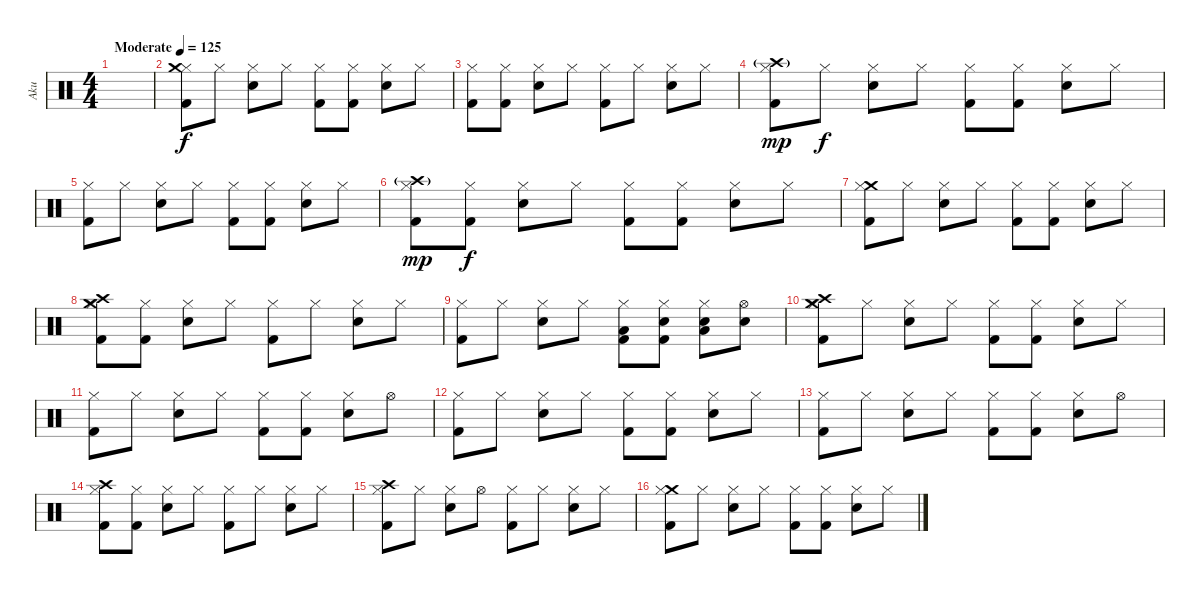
\track ("Aku" "Aku") {instrument percussion}
\staff {score}
\articulation defaults
\ts (4 4)
\tempo (125 "Moderate")
\clef neutral
\ks c
|
("Hi-Hat (closed)" "Kick (hit) 2" "Crash medium (hit)").8 "Hi-Hat (closed)".8 ("Hi-Hat (closed)" "Snare (hit) 2").8 "Hi-Hat (closed)".8 ("Hi-Hat (closed)" "Kick (hit) 2").8 ("Hi-Hat (closed)" "Kick (hit) 2").8 ("Hi-Hat (closed)" "Snare (hit) 2").8 "Hi-Hat (closed)".8 |
("Hi-Hat (closed)" "Kick (hit) 2").8 ("Hi-Hat (closed)" "Kick (hit) 2").8 ("Hi-Hat (closed)" "Snare (hit) 2").8 "Hi-Hat (closed)".8 ("Hi-Hat (closed)" "Kick (hit) 2").8 "Hi-Hat (closed)".8 ("Hi-Hat (closed)" "Snare (hit) 2").8 "Hi-Hat (closed)".8 |
("Crash high (hit)"{g} "Hi-Hat (closed)" "Kick (hit) 2").8{dy mp} "Hi-Hat (closed)".8{dy f} ("Hi-Hat (closed)" "Snare (hit) 2").8 "Hi-Hat (closed)".8 ("Hi-Hat (closed)" "Kick (hit) 2").8 ("Hi-Hat (closed)" "Kick (hit) 2").8 ("Hi-Hat (closed)" "Snare (hit) 2").8 "Hi-Hat (closed)".8 |
("Hi-Hat (closed)" "Kick (hit) 2").8 "Hi-Hat (closed)".8 ("Hi-Hat (closed)" "Snare (hit) 2").8 "Hi-Hat (closed)".8 ("Hi-Hat (closed)" "Kick (hit) 2").8 ("Hi-Hat (closed)" "Kick (hit) 2").8 ("Hi-Hat (closed)" "Snare (hit) 2").8 "Hi-Hat (closed)".8 |
("Crash high (hit)"{g} "Hi-Hat (closed)" "Kick (hit) 2").8{dy mp} ("Hi-Hat (closed)" "Kick (hit) 2").8{dy f} ("Hi-Hat (closed)" "Snare (hit) 2").8 "Hi-Hat (closed)".8 ("Hi-Hat (closed)" "Kick (hit) 2").8 ("Hi-Hat (closed)" "Kick (hit) 2").8 ("Hi-Hat (closed)" "Snare (hit) 2").8 "Hi-Hat (closed)".8 |
("Crash medium (hit)" "Hi-Hat (closed)" "Kick (hit) 2").8 "Hi-Hat (closed)".8 ("Hi-Hat (closed)" "Snare (hit) 2").8 "Hi-Hat (closed)".8 ("Hi-Hat (closed)" "Kick (hit) 2").8 ("Hi-Hat (closed)" "Kick (hit) 2").8 ("Hi-Hat (closed)" "Snare (hit) 2").8 "Hi-Hat (closed)".8 |
("Crash high (hit)" "Hi-Hat (closed)" "Kick (hit) 2" "Crash medium (hit)").8 ("Hi-Hat (closed)" "Kick (hit) 2").8 ("Hi-Hat (closed)" "Snare (hit) 2").8 "Hi-Hat (closed)".8 ("Hi-Hat (closed)" "Kick (hit) 2").8 "Hi-Hat (closed)".8 ("Hi-Hat (closed)" "Snare (hit) 2").8 "Hi-Hat (closed)".8 |
("Hi-Hat (closed)" "Kick (hit) 2").8 "Hi-Hat (closed)".8 ("Hi-Hat (closed)" "Snare (hit) 2").8 "Hi-Hat (closed)".8 ("Hi-Hat (closed)" "Kick (hit) 2" "Low Tom (hit)").8 ("Hi-Hat (closed)" "Kick (hit) 2" "Snare (hit) 2").8 ("Hi-Hat (closed)" "Snare (hit) 2" "Low Tom (hit)").8 ("Hi-Hat (open)" "Snare (hit) 2").8 |
("Crash high (hit)" "Hi-Hat (closed)" "Kick (hit) 2" "Crash medium (hit)").8 "Hi-Hat (closed)".8 ("Hi-Hat (closed)" "Snare (hit) 2").8 "Hi-Hat (closed)".8 ("Hi-Hat (closed)" "Kick (hit) 2").8 ("Hi-Hat (closed)" "Kick (hit) 2").8 ("Hi-Hat (closed)" "Snare (hit) 2").8 "Hi-Hat (closed)".8 |
("Hi-Hat (closed)" "Kick (hit) 2").8 "Hi-Hat (closed)".8 ("Hi-Hat (closed)" "Snare (hit) 2").8 "Hi-Hat (closed)".8 ("Hi-Hat (closed)" "Kick (hit) 2").8 ("Hi-Hat (closed)" "Kick (hit) 2").8 ("Hi-Hat (closed)" "Snare (hit) 2").8 "Hi-Hat (open)".8 |
("Hi-Hat (closed)" "Kick (hit) 2").8 "Hi-Hat (closed)".8 ("Hi-Hat (closed)" "Snare (hit) 2").8 "Hi-Hat (closed)".8 ("Hi-Hat (closed)" "Kick (hit) 2").8 ("Hi-Hat (closed)" "Kick (hit) 2").8 ("Hi-Hat (closed)" "Snare (hit) 2").8 "Hi-Hat (closed)".8 |
("Hi-Hat (closed)" "Kick (hit) 2").8 "Hi-Hat (closed)".8 ("Hi-Hat (closed)" "Snare (hit) 2").8 "Hi-Hat (closed)".8 ("Hi-Hat (closed)" "Kick (hit) 2").8 ("Hi-Hat (closed)" "Kick (hit) 2").8 ("Hi-Hat (closed)" "Snare (hit) 2").8 "Hi-Hat (open)".8 |
("Crash high (hit)" "Hi-Hat (closed)" "Kick (hit) 2").8 ("Hi-Hat (closed)" "Kick (hit) 2").8 ("Hi-Hat (closed)" "Snare (hit) 2").8 "Hi-Hat (closed)".8 ("Hi-Hat (closed)" "Kick (hit) 2").8 "Hi-Hat (closed)".8 ("Hi-Hat (closed)" "Snare (hit) 2").8 "Hi-Hat (closed)".8 |
("Crash high (hit)" "Hi-Hat (closed)" "Kick (hit) 2").8 "Hi-Hat (closed)".8 ("Hi-Hat (closed)" "Snare (hit) 2").8 "Hi-Hat (open)".8 ("Hi-Hat (closed)" "Kick (hit) 2").8 "Hi-Hat (closed)".8 ("Hi-Hat (closed)" "Snare (hit) 2").8 "Hi-Hat (closed)".8 |
("Crash medium (hit)" "Hi-Hat (closed)" "Kick (hit) 2").8 "Hi-Hat (closed)".8 ("Hi-Hat (closed)" "Snare (hit) 2").8 "Hi-Hat (closed)".8 ("Hi-Hat (closed)" "Kick (hit) 2").8 ("Hi-Hat (closed)" "Kick (hit) 2").8 ("Hi-Hat (closed)" "Snare (hit) 2").8 "Hi-Hat (closed)".8
